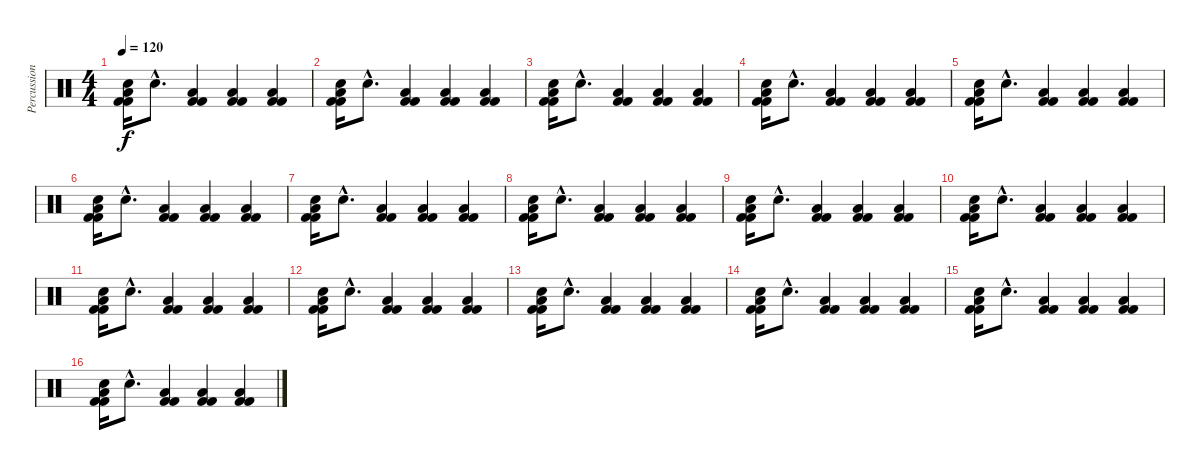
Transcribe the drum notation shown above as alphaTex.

\track ("Percussions" "Percussion") {instrument percussion}
\staff {score}
\articulation defaults
\ts (4 4)
\tempo 120
\clef neutral
\ks c
("Electric Snare (hit)" "Kick (hit) 2" "Kick (hit) 2" "Low Floor Tom (hit)").16{dy f} "Electric Snare (hit)"{hac}.8{d} ("Kick (hit) 2" "Kick (hit) 2" "Low Floor Tom (hit)").4 ("Kick (hit) 2" "Kick (hit) 2" "Low Floor Tom (hit)").4 ("Kick (hit) 2" "Kick (hit) 2" "Low Floor Tom (hit)").4 |
("Electric Snare (hit)" "Kick (hit) 2" "Kick (hit) 2" "Low Floor Tom (hit)").16 "Electric Snare (hit)"{hac}.8{d} ("Kick (hit) 2" "Kick (hit) 2" "Low Floor Tom (hit)").4 ("Kick (hit) 2" "Kick (hit) 2" "Low Floor Tom (hit)").4 ("Kick (hit) 2" "Kick (hit) 2" "Low Floor Tom (hit)").4 |
("Electric Snare (hit)" "Kick (hit) 2" "Kick (hit) 2" "Low Floor Tom (hit)").16 "Electric Snare (hit)"{hac}.8{d} ("Kick (hit) 2" "Kick (hit) 2" "Low Floor Tom (hit)").4 ("Kick (hit) 2" "Kick (hit) 2" "Low Floor Tom (hit)").4 ("Kick (hit) 2" "Kick (hit) 2" "Low Floor Tom (hit)").4 |
("Electric Snare (hit)" "Kick (hit) 2" "Kick (hit) 2" "Low Floor Tom (hit)").16 "Electric Snare (hit)"{hac}.8{d} ("Kick (hit) 2" "Kick (hit) 2" "Low Floor Tom (hit)").4 ("Kick (hit) 2" "Kick (hit) 2" "Low Floor Tom (hit)").4 ("Kick (hit) 2" "Kick (hit) 2" "Low Floor Tom (hit)").4 |
("Electric Snare (hit)" "Kick (hit) 2" "Kick (hit) 2" "Low Floor Tom (hit)").16 "Electric Snare (hit)"{hac}.8{d} ("Kick (hit) 2" "Kick (hit) 2" "Low Floor Tom (hit)").4 ("Kick (hit) 2" "Kick (hit) 2" "Low Floor Tom (hit)").4 ("Kick (hit) 2" "Kick (hit) 2" "Low Floor Tom (hit)").4 |
("Electric Snare (hit)" "Kick (hit) 2" "Kick (hit) 2" "Low Floor Tom (hit)").16 "Electric Snare (hit)"{hac}.8{d} ("Kick (hit) 2" "Kick (hit) 2" "Low Floor Tom (hit)").4 ("Kick (hit) 2" "Kick (hit) 2" "Low Floor Tom (hit)").4 ("Kick (hit) 2" "Kick (hit) 2" "Low Floor Tom (hit)").4 |
("Electric Snare (hit)" "Kick (hit) 2" "Kick (hit) 2" "Low Floor Tom (hit)").16 "Electric Snare (hit)"{hac}.8{d} ("Kick (hit) 2" "Kick (hit) 2" "Low Floor Tom (hit)").4 ("Kick (hit) 2" "Kick (hit) 2" "Low Floor Tom (hit)").4 ("Kick (hit) 2" "Kick (hit) 2" "Low Floor Tom (hit)").4 |
("Electric Snare (hit)" "Kick (hit) 2" "Kick (hit) 2" "Low Floor Tom (hit)").16 "Electric Snare (hit)"{hac}.8{d} ("Kick (hit) 2" "Kick (hit) 2" "Low Floor Tom (hit)").4 ("Kick (hit) 2" "Kick (hit) 2" "Low Floor Tom (hit)").4 ("Kick (hit) 2" "Kick (hit) 2" "Low Floor Tom (hit)").4 |
("Electric Snare (hit)" "Kick (hit) 2" "Kick (hit) 2" "Low Floor Tom (hit)").16 "Electric Snare (hit)"{hac}.8{d} ("Kick (hit) 2" "Kick (hit) 2" "Low Floor Tom (hit)").4 ("Kick (hit) 2" "Kick (hit) 2" "Low Floor Tom (hit)").4 ("Kick (hit) 2" "Kick (hit) 2" "Low Floor Tom (hit)").4 |
("Electric Snare (hit)" "Kick (hit) 2" "Kick (hit) 2" "Low Floor Tom (hit)").16 "Electric Snare (hit)"{hac}.8{d} ("Kick (hit) 2" "Kick (hit) 2" "Low Floor Tom (hit)").4 ("Kick (hit) 2" "Kick (hit) 2" "Low Floor Tom (hit)").4 ("Kick (hit) 2" "Kick (hit) 2" "Low Floor Tom (hit)").4 |
("Electric Snare (hit)" "Kick (hit) 2" "Kick (hit) 2" "Low Floor Tom (hit)").16 "Electric Snare (hit)"{hac}.8{d} ("Kick (hit) 2" "Kick (hit) 2" "Low Floor Tom (hit)").4 ("Kick (hit) 2" "Kick (hit) 2" "Low Floor Tom (hit)").4 ("Kick (hit) 2" "Kick (hit) 2" "Low Floor Tom (hit)").4 |
("Electric Snare (hit)" "Kick (hit) 2" "Kick (hit) 2" "Low Floor Tom (hit)").16 "Electric Snare (hit)"{hac}.8{d} ("Kick (hit) 2" "Kick (hit) 2" "Low Floor Tom (hit)").4 ("Kick (hit) 2" "Kick (hit) 2" "Low Floor Tom (hit)").4 ("Kick (hit) 2" "Kick (hit) 2" "Low Floor Tom (hit)").4 |
("Electric Snare (hit)" "Kick (hit) 2" "Kick (hit) 2" "Low Floor Tom (hit)").16 "Electric Snare (hit)"{hac}.8{d} ("Kick (hit) 2" "Kick (hit) 2" "Low Floor Tom (hit)").4 ("Kick (hit) 2" "Kick (hit) 2" "Low Floor Tom (hit)").4 ("Kick (hit) 2" "Kick (hit) 2" "Low Floor Tom (hit)").4 |
("Electric Snare (hit)" "Kick (hit) 2" "Kick (hit) 2" "Low Floor Tom (hit)").16 "Electric Snare (hit)"{hac}.8{d} ("Kick (hit) 2" "Kick (hit) 2" "Low Floor Tom (hit)").4 ("Kick (hit) 2" "Kick (hit) 2" "Low Floor Tom (hit)").4 ("Kick (hit) 2" "Kick (hit) 2" "Low Floor Tom (hit)").4 |
("Electric Snare (hit)" "Kick (hit) 2" "Kick (hit) 2" "Low Floor Tom (hit)").16 "Electric Snare (hit)"{hac}.8{d} ("Kick (hit) 2" "Kick (hit) 2" "Low Floor Tom (hit)").4 ("Kick (hit) 2" "Kick (hit) 2" "Low Floor Tom (hit)").4 ("Kick (hit) 2" "Kick (hit) 2" "Low Floor Tom (hit)").4 |
("Electric Snare (hit)" "Kick (hit) 2" "Kick (hit) 2" "Low Floor Tom (hit)").16 "Electric Snare (hit)"{hac}.8{d} ("Kick (hit) 2" "Kick (hit) 2" "Low Floor Tom (hit)").4 ("Kick (hit) 2" "Kick (hit) 2" "Low Floor Tom (hit)").4 ("Kick (hit) 2" "Kick (hit) 2" "Low Floor Tom (hit)").4
